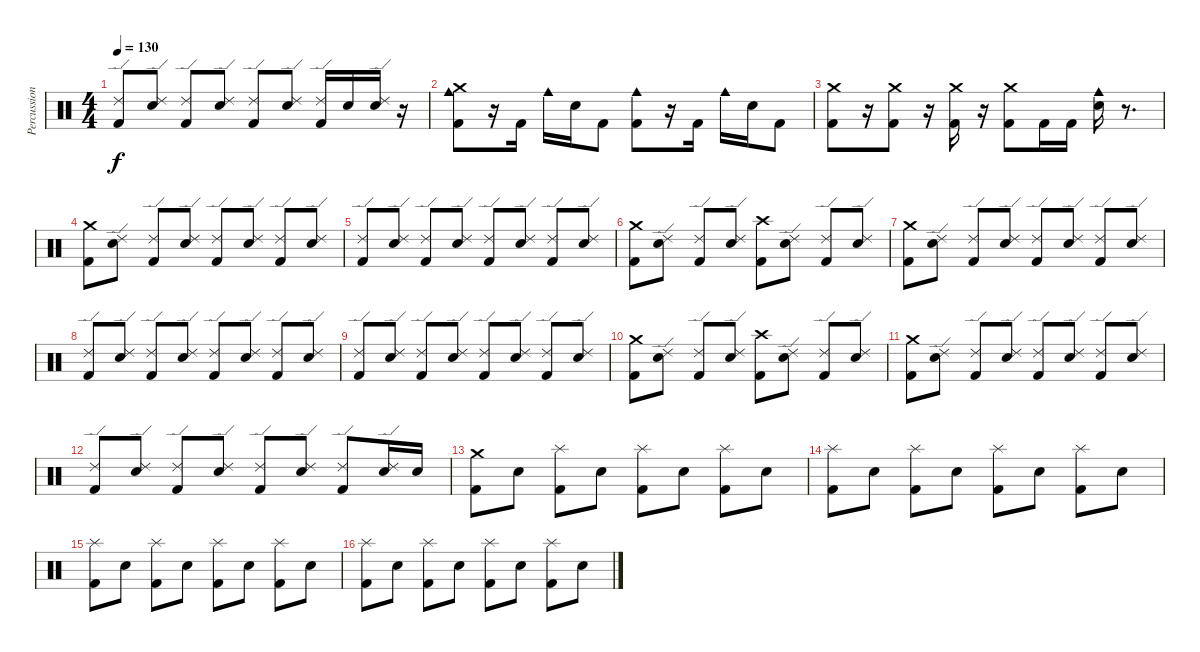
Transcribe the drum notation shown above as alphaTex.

\track ("Percussion" "Percussion") {instrument percussion}
\staff {score}
\articulation defaults
\ts (4 4)
\tempo 130
\clef neutral
\ks c
("Ride (edge) 2" "Kick (hit) 2").8{dy f} ("Ride (edge) 2" "Electric Snare (hit)").8 ("Ride (edge) 2" "Kick (hit) 2").8 ("Ride (edge) 2" "Electric Snare (hit)").8 ("Ride (edge) 2" "Kick (hit) 2").8 ("Ride (edge) 2" "Electric Snare (hit)").8 ("Ride (edge) 2" "Kick (hit) 2").16 "Electric Snare (hit)".16 ("Ride (edge) 2" "Electric Snare (hit)").16 r.16 |
("Crash medium (hit)" "Cowbell medium (hit)" "Kick (hit) 2").8 r.16 "Kick (hit) 2".16 "Cowbell medium (hit)".16 "Electric Snare (hit)".16 "Kick (hit) 2".8 ("Cowbell medium (hit)" "Kick (hit) 2").8 r.16 "Kick (hit) 2".16 "Cowbell medium (hit)".16 "Electric Snare (hit)".16 "Kick (hit) 2".8 |
("Crash medium (hit)" "Kick (hit) 2").8 r.16 ("Crash medium (hit)" "Kick (hit) 2").8 r.16 ("Crash medium (hit)" "Kick (hit) 2").16 r.16 ("Crash medium (hit)" "Kick (hit) 2").8 "Kick (hit) 2".16 "Kick (hit) 2".16 ("Cowbell medium (hit)" "Electric Snare (hit)").16 r.8{d} |
("Crash medium (hit)" "Kick (hit) 2").8 ("Ride (edge) 2" "Electric Snare (hit)").8 ("Ride (edge) 2" "Kick (hit) 2").8 ("Ride (edge) 2" "Electric Snare (hit)").8 ("Ride (edge) 2" "Kick (hit) 2").8 ("Ride (edge) 2" "Electric Snare (hit)").8 ("Ride (edge) 2" "Kick (hit) 2").8 ("Ride (edge) 2" "Electric Snare (hit)").8 |
("Ride (edge) 2" "Kick (hit) 2").8 ("Ride (edge) 2" "Electric Snare (hit)").8 ("Ride (edge) 2" "Kick (hit) 2").8 ("Ride (edge) 2" "Electric Snare (hit)").8 ("Ride (edge) 2" "Kick (hit) 2").8 ("Ride (edge) 2" "Electric Snare (hit)").8 ("Ride (edge) 2" "Kick (hit) 2").8 ("Ride (edge) 2" "Electric Snare (hit)").8 |
("Crash medium (hit)" "Kick (hit) 2").8 ("Ride (edge) 2" "Electric Snare (hit)").8 ("Ride (edge) 2" "Kick (hit) 2").8 ("Ride (edge) 2" "Electric Snare (hit)").8 ("Crash high (hit)" "Kick (hit) 2").8 ("Ride (edge) 2" "Electric Snare (hit)").8 ("Ride (edge) 2" "Kick (hit) 2").8 ("Ride (edge) 2" "Electric Snare (hit)").8 |
("Crash medium (hit)" "Kick (hit) 2").8 ("Ride (edge) 2" "Electric Snare (hit)").8 ("Ride (edge) 2" "Kick (hit) 2").8 ("Ride (edge) 2" "Electric Snare (hit)").8 ("Ride (edge) 2" "Kick (hit) 2").8 ("Ride (edge) 2" "Electric Snare (hit)").8 ("Ride (edge) 2" "Kick (hit) 2").8 ("Ride (edge) 2" "Electric Snare (hit)").8 |
("Ride (edge) 2" "Kick (hit) 2").8 ("Ride (edge) 2" "Electric Snare (hit)").8 ("Ride (edge) 2" "Kick (hit) 2").8 ("Ride (edge) 2" "Electric Snare (hit)").8 ("Ride (edge) 2" "Kick (hit) 2").8 ("Ride (edge) 2" "Electric Snare (hit)").8 ("Ride (edge) 2" "Kick (hit) 2").8 ("Ride (edge) 2" "Electric Snare (hit)").8 |
("Ride (edge) 2" "Kick (hit) 2").8 ("Ride (edge) 2" "Electric Snare (hit)").8 ("Ride (edge) 2" "Kick (hit) 2").8 ("Ride (edge) 2" "Electric Snare (hit)").8 ("Ride (edge) 2" "Kick (hit) 2").8 ("Ride (edge) 2" "Electric Snare (hit)").8 ("Ride (edge) 2" "Kick (hit) 2").8 ("Ride (edge) 2" "Electric Snare (hit)").8 |
("Crash medium (hit)" "Kick (hit) 2").8 ("Ride (edge) 2" "Electric Snare (hit)").8 ("Ride (edge) 2" "Kick (hit) 2").8 ("Ride (edge) 2" "Electric Snare (hit)").8 ("Crash high (hit)" "Kick (hit) 2").8 ("Ride (edge) 2" "Electric Snare (hit)").8 ("Ride (edge) 2" "Kick (hit) 2").8 ("Ride (edge) 2" "Electric Snare (hit)").8 |
("Crash medium (hit)" "Kick (hit) 2").8 ("Ride (edge) 2" "Electric Snare (hit)").8 ("Ride (edge) 2" "Kick (hit) 2").8 ("Ride (edge) 2" "Electric Snare (hit)").8 ("Ride (edge) 2" "Kick (hit) 2").8 ("Ride (edge) 2" "Electric Snare (hit)").8 ("Ride (edge) 2" "Kick (hit) 2").8 ("Ride (edge) 2" "Electric Snare (hit)").8 |
("Ride (edge) 2" "Kick (hit) 2").8 ("Ride (edge) 2" "Electric Snare (hit)").8 ("Ride (edge) 2" "Kick (hit) 2").8 ("Ride (edge) 2" "Electric Snare (hit)").8 ("Ride (edge) 2" "Kick (hit) 2").8 ("Ride (edge) 2" "Electric Snare (hit)").8 ("Ride (edge) 2" "Kick (hit) 2").8 ("Ride (edge) 2" "Electric Snare (hit)").16 "Electric Snare (hit)".16 |
("Crash medium (hit)" "Kick (hit) 2").8 "Electric Snare (hit)".8 ("Splash (hit)" "Kick (hit) 2").8 "Electric Snare (hit)".8 ("Splash (hit)" "Kick (hit) 2").8 "Electric Snare (hit)".8 ("Splash (hit)" "Kick (hit) 2").8 "Electric Snare (hit)".8 |
("Splash (hit)" "Kick (hit) 2").8 "Electric Snare (hit)".8 ("Splash (hit)" "Kick (hit) 2").8 "Electric Snare (hit)".8 ("Splash (hit)" "Kick (hit) 2").8 "Electric Snare (hit)".8 ("Splash (hit)" "Kick (hit) 2").8 "Electric Snare (hit)".8 |
("Splash (hit)" "Kick (hit) 2").8 "Electric Snare (hit)".8 ("Splash (hit)" "Kick (hit) 2").8 "Electric Snare (hit)".8 ("Splash (hit)" "Kick (hit) 2").8 "Electric Snare (hit)".8 ("Splash (hit)" "Kick (hit) 2").8 "Electric Snare (hit)".8 |
("Splash (hit)" "Kick (hit) 2").8 "Electric Snare (hit)".8 ("Splash (hit)" "Kick (hit) 2").8 "Electric Snare (hit)".8 ("Splash (hit)" "Kick (hit) 2").8 "Electric Snare (hit)".8 ("Splash (hit)" "Kick (hit) 2").8 "Electric Snare (hit)".8
